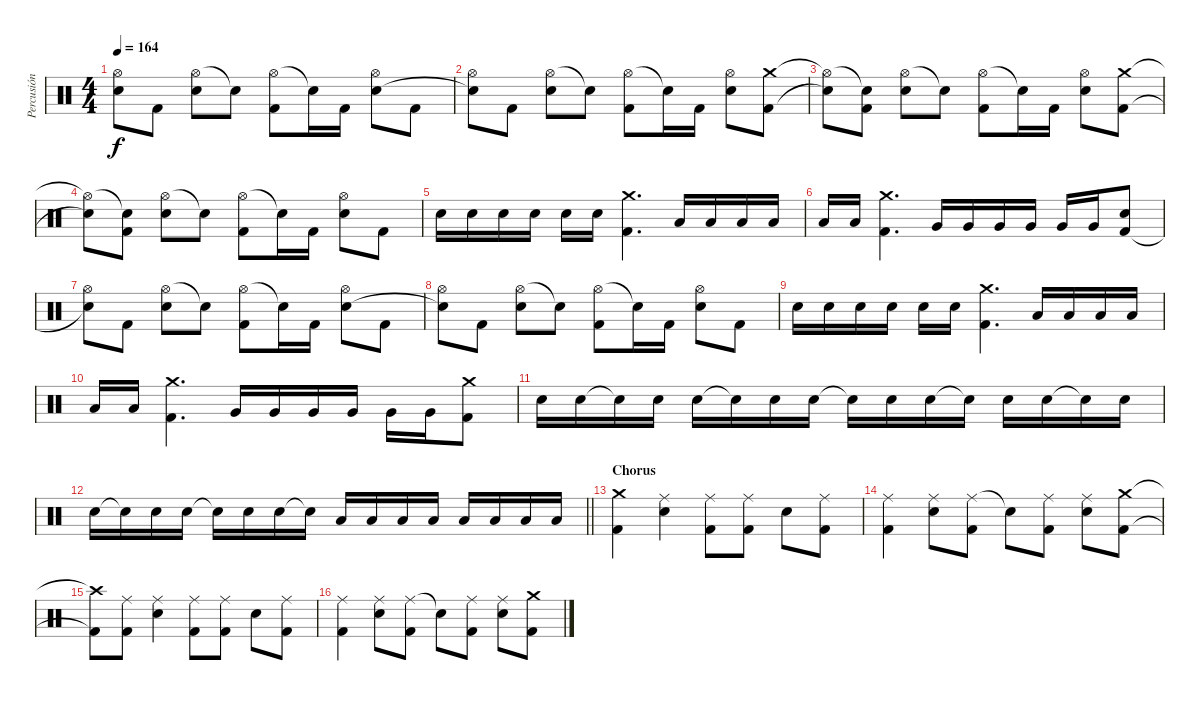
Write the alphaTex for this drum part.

\track ("Percusión" "Percusión") {instrument percussion}
\staff
\articulation defaults
\ts (4 4)
\tempo 164
\clef neutral
\ks c
("Hi-Hat (open)" "Snare (hit)"{t}).8{dy f} "Kick (hit) 2".8 ("Hi-Hat (open)" "Snare (hit) 2").8 "Snare (hit)"{t}.8 ("Hi-Hat (open)" "Kick (hit) 2").8 "Snare (hit)"{t}.16 "Kick (hit) 2".16 ("Hi-Hat (open)" "Snare (hit) 2").8 "Kick (hit) 2".8 |
("Hi-Hat (open)" "Snare (hit)"{t}).8 "Kick (hit) 2".8 ("Hi-Hat (open)" "Snare (hit) 2").8 "Snare (hit)"{t}.8 ("Hi-Hat (open)" "Kick (hit) 2").8 "Snare (hit)"{t}.16 "Kick (hit) 2".16 ("Hi-Hat (open)" "Snare (hit) 2").8 ("Crash medium (hit)" "Kick (hit) 2").8 |
("Hi-Hat (open)"{t} "Snare (hit)"{t}).8 ("Snare (hit)"{t} "Kick (hit) 2").8 ("Hi-Hat (open)" "Snare (hit) 2").8 "Snare (hit)"{t}.8 ("Hi-Hat (open)" "Kick (hit) 2").8 "Snare (hit)"{t}.16 "Kick (hit) 2".16 ("Hi-Hat (open)" "Snare (hit) 2").8 ("Crash medium (hit)" "Kick (hit) 2").8 |
("Hi-Hat (open)"{t} "Snare (hit)"{t}).8 ("Snare (hit)"{t} "Kick (hit) 2").8 ("Hi-Hat (open)" "Snare (hit) 2").8 "Snare (hit)"{t}.8 ("Hi-Hat (open)" "Kick (hit) 2").8 "Snare (hit)"{t}.16 "Kick (hit) 2".16 ("Hi-Hat (open)" "Snare (hit) 2").8 "Kick (hit) 2".8 |
"Snare (hit) 2".16 "Snare (hit) 2".16 "Snare (hit) 2".16 "Snare (hit) 2".16 "Snare (hit) 2".16 "Snare (hit) 2".16 ("Crash medium (hit)" "Kick (hit) 2").4{d} "Low Tom (hit)".16 "Low Tom (hit)".16 "Low Tom (hit)".16 "Low Tom (hit)".16 |
"Low Tom (hit)".16 "Low Tom (hit)".16 ("Crash medium (hit)" "Kick (hit) 2").4{d} "Very Low Tom (hit)".16 "Very Low Tom (hit)".16 "Very Low Tom (hit)".16 "Very Low Tom (hit)".16 "Very Low Tom (hit)".16 "Very Low Tom (hit)".16 ("Snare (hit)" "Kick (hit) 2").8 |
("Hi-Hat (open)" "Snare (hit)"{t}).8 "Kick (hit) 2".8 ("Hi-Hat (open)" "Snare (hit) 2").8 "Snare (hit)"{t}.8 ("Hi-Hat (open)" "Kick (hit) 2").8 "Snare (hit)"{t}.16 "Kick (hit) 2".16 ("Hi-Hat (open)" "Snare (hit) 2").8 "Kick (hit) 2".8 |
("Hi-Hat (open)" "Snare (hit)"{t}).8 "Kick (hit) 2".8 ("Hi-Hat (open)" "Snare (hit) 2").8 "Snare (hit)"{t}.8 ("Hi-Hat (open)" "Kick (hit) 2").8 "Snare (hit)"{t}.16 "Kick (hit) 2".16 ("Hi-Hat (open)" "Snare (hit) 2").8 "Kick (hit) 2".8 |
"Snare (hit) 2".16 "Snare (hit) 2".16 "Snare (hit) 2".16 "Snare (hit) 2".16 "Snare (hit) 2".16 "Snare (hit) 2".16 ("Crash medium (hit)" "Kick (hit) 2").4{d} "Low Tom (hit)".16 "Low Tom (hit)".16 "Low Tom (hit)".16 "Low Tom (hit)".16 |
"Low Tom (hit)".16 "Low Tom (hit)".16 ("Crash medium (hit)" "Kick (hit) 2").4{d} "Very Low Tom (hit)".16 "Very Low Tom (hit)".16 "Very Low Tom (hit)".16 "Very Low Tom (hit)".16 "Very Low Tom (hit)".16 "Very Low Tom (hit)".16 ("Crash medium (hit)" "Kick (hit) 2").8 |
"Snare (hit) 2".16 "Snare (hit) 2".16 "Snare (hit)"{t}.16 "Snare (hit) 2".16 "Snare (hit) 2".16 "Snare (hit)"{t}.16 "Snare (hit) 2".16 "Snare (hit) 2".16 "Snare (hit)"{t}.16 "Snare (hit) 2".16 "Snare (hit) 2".16 "Snare (hit)"{t}.16 "Snare (hit) 2".16 "Snare (hit) 2".16 "Snare (hit)"{t}.16 "Snare (hit) 2".16 |
\barLineRight lightlight "Snare (hit) 2".16 "Snare (hit)"{t}.16 "Snare (hit) 2".16 "Snare (hit) 2".16 "Snare (hit)"{t}.16 "Snare (hit) 2".16 "Snare (hit) 2".16 "Snare (hit)"{t}.16 "Low Tom (hit)".16 "Low Tom (hit)".16 "Low Tom (hit)".16 "Low Tom (hit)".16 "Low Tom (hit)".16 "Low Tom (hit)".16 "Low Tom (hit)".16 "Low Tom (hit)".16
|
\section ("" "Chorus")
("Crash medium (hit)" "Kick (hit) 2").4 ("Ride (middle)" "Snare (hit) 2").4 ("Ride (middle)" "Kick (hit) 2").8 ("Ride (middle)" "Kick (hit) 2").8 "Snare (hit) 2".8 ("Ride (middle)" "Kick (hit) 2").8 |
("Ride (middle)" "Kick (hit) 2").4 ("Ride (middle)" "Snare (hit) 2").8 ("Ride (middle)" "Kick (hit) 2").8 "Snare (hit)"{t}.8 ("Ride (middle)" "Kick (hit) 2").8 ("Ride (middle)" "Snare (hit) 2").8 ("Crash medium (hit)" "Kick (hit) 2").8 |
("Crash high (hit)"{t} "Kick (hit) 2"{t}).8 ("Ride (middle)" "Kick (hit) 2").8 ("Ride (middle)" "Snare (hit) 2").4 ("Ride (middle)" "Kick (hit) 2").8 ("Ride (middle)" "Kick (hit) 2").8 "Snare (hit) 2".8 ("Ride (middle)" "Kick (hit) 2").8 |
("Ride (middle)" "Kick (hit) 2").4 ("Ride (middle)" "Snare (hit) 2").8 ("Ride (middle)" "Kick (hit) 2").8 "Snare (hit)"{t}.8 ("Ride (middle)" "Kick (hit) 2").8 ("Ride (middle)" "Snare (hit) 2").8 ("Crash medium (hit)" "Kick (hit) 2").8
